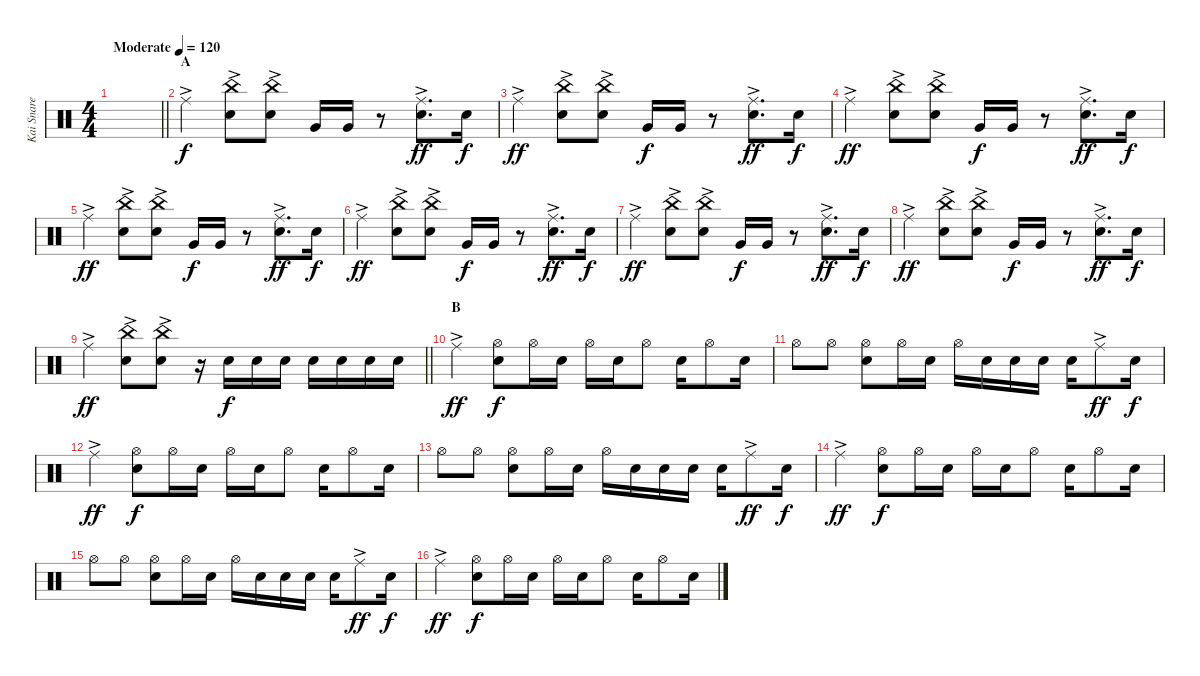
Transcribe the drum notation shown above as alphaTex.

\track ("Kai Snare" "Kai Snare") {instrument percussion}
\staff {score}
\articulation defaults
\ts (4 4)
\tempo (120 "Moderate")
\clef neutral
\barLineRight lightlight
\ks c
|
\section ("" "A")
"Ride (middle)"{ac}.4 ("China (hit)"{ac} "Snare (hit) 2").8 ("China (hit)"{ac} "Snare (hit) 2").8 "Very Low Tom (hit)".16{dy f} "Very Low Tom (hit)".16 r.8 ("Ride (middle)"{ac} "Snare (hit) 2").8{d dy ff} "Snare (hit) 2".16{dy f} |
"Ride (middle)"{ac}.4{dy ff} ("China (hit)"{ac} "Snare (hit) 2").8 ("China (hit)"{ac} "Snare (hit) 2").8 "Very Low Tom (hit)".16{dy f} "Very Low Tom (hit)".16 r.8 ("Ride (middle)"{ac} "Snare (hit) 2").8{d dy ff} "Snare (hit) 2".16{dy f} |
"Ride (middle)"{ac}.4{dy ff} ("China (hit)"{ac} "Snare (hit) 2").8 ("China (hit)"{ac} "Snare (hit) 2").8 "Very Low Tom (hit)".16{dy f} "Very Low Tom (hit)".16 r.8 ("Ride (middle)"{ac} "Snare (hit) 2").8{d dy ff} "Snare (hit) 2".16{dy f} |
"Ride (middle)"{ac}.4{dy ff} ("China (hit)"{ac} "Snare (hit) 2").8 ("China (hit)"{ac} "Snare (hit) 2").8 "Very Low Tom (hit)".16{dy f} "Very Low Tom (hit)".16 r.8 ("Ride (middle)"{ac} "Snare (hit) 2").8{d dy ff} "Snare (hit) 2".16{dy f} |
"Ride (middle)"{ac}.4{dy ff} ("China (hit)"{ac} "Snare (hit) 2").8 ("China (hit)"{ac} "Snare (hit) 2").8 "Very Low Tom (hit)".16{dy f} "Very Low Tom (hit)".16 r.8 ("Ride (middle)"{ac} "Snare (hit) 2").8{d dy ff} "Snare (hit) 2".16{dy f} |
"Ride (middle)"{ac}.4{dy ff} ("China (hit)"{ac} "Snare (hit) 2").8 ("China (hit)"{ac} "Snare (hit) 2").8 "Very Low Tom (hit)".16{dy f} "Very Low Tom (hit)".16 r.8 ("Ride (middle)"{ac} "Snare (hit) 2").8{d dy ff} "Snare (hit) 2".16{dy f} |
"Ride (middle)"{ac}.4{dy ff} ("China (hit)"{ac} "Snare (hit) 2").8 ("China (hit)"{ac} "Snare (hit) 2").8 "Very Low Tom (hit)".16{dy f} "Very Low Tom (hit)".16 r.8 ("Ride (middle)"{ac} "Snare (hit) 2").8{d dy ff} "Snare (hit) 2".16{dy f} |
\barLineRight lightlight "Ride (middle)"{ac}.4{dy ff}
("China (hit)"{ac} "Snare (hit) 2").8 ("China (hit)"{ac} "Snare (hit) 2").8 r.16 "Snare (hit) 2".16{dy f} "Snare (hit) 2".16 "Snare (hit) 2".16 "Snare (hit) 2".16 "Snare (hit) 2".16 "Snare (hit) 2".16 "Snare (hit) 2".16 |
\section ("" "B")
"Ride (middle)"{ac}.4{dy ff} ("Hi-Hat (open)" "Snare (hit) 2").8{dy f} "Hi-Hat (open)".16 "Snare (hit) 2".16 "Hi-Hat (open)".16 "Snare (hit) 2".16 "Hi-Hat (open)".8 "Snare (hit) 2".16 "Hi-Hat (open)".8 "Snare (hit) 2".16 |
"Hi-Hat (open)".8 "Hi-Hat (open)".8 ("Hi-Hat (open)" "Snare (hit) 2").8 "Hi-Hat (open)".16 "Snare (hit) 2".16 "Hi-Hat (open)".16 "Snare (hit) 2".16 "Snare (hit) 2".16 "Snare (hit) 2".16 "Snare (hit) 2".16 "Ride (middle)"{ac}.8{dy ff} "Snare (hit) 2".16{dy f} |
"Ride (middle)"{ac}.4{dy ff} ("Hi-Hat (open)" "Snare (hit) 2").8{dy f} "Hi-Hat (open)".16 "Snare (hit) 2".16 "Hi-Hat (open)".16 "Snare (hit) 2".16 "Hi-Hat (open)".8 "Snare (hit) 2".16 "Hi-Hat (open)".8 "Snare (hit) 2".16 |
"Hi-Hat (open)".8 "Hi-Hat (open)".8 ("Hi-Hat (open)" "Snare (hit) 2").8 "Hi-Hat (open)".16 "Snare (hit) 2".16 "Hi-Hat (open)".16 "Snare (hit) 2".16 "Snare (hit) 2".16 "Snare (hit) 2".16 "Snare (hit) 2".16 "Ride (middle)"{ac}.8{dy ff} "Snare (hit) 2".16{dy f} |
"Ride (middle)"{ac}.4{dy ff} ("Hi-Hat (open)" "Snare (hit) 2").8{dy f} "Hi-Hat (open)".16 "Snare (hit) 2".16 "Hi-Hat (open)".16 "Snare (hit) 2".16 "Hi-Hat (open)".8 "Snare (hit) 2".16 "Hi-Hat (open)".8 "Snare (hit) 2".16 |
"Hi-Hat (open)".8 "Hi-Hat (open)".8 ("Hi-Hat (open)" "Snare (hit) 2").8 "Hi-Hat (open)".16 "Snare (hit) 2".16 "Hi-Hat (open)".16 "Snare (hit) 2".16 "Snare (hit) 2".16 "Snare (hit) 2".16 "Snare (hit) 2".16 "Ride (middle)"{ac}.8{dy ff} "Snare (hit) 2".16{dy f} |
"Ride (middle)"{ac}.4{dy ff} ("Hi-Hat (open)" "Snare (hit) 2").8{dy f} "Hi-Hat (open)".16 "Snare (hit) 2".16 "Hi-Hat (open)".16 "Snare (hit) 2".16 "Hi-Hat (open)".8 "Snare (hit) 2".16 "Hi-Hat (open)".8 "Snare (hit) 2".16
